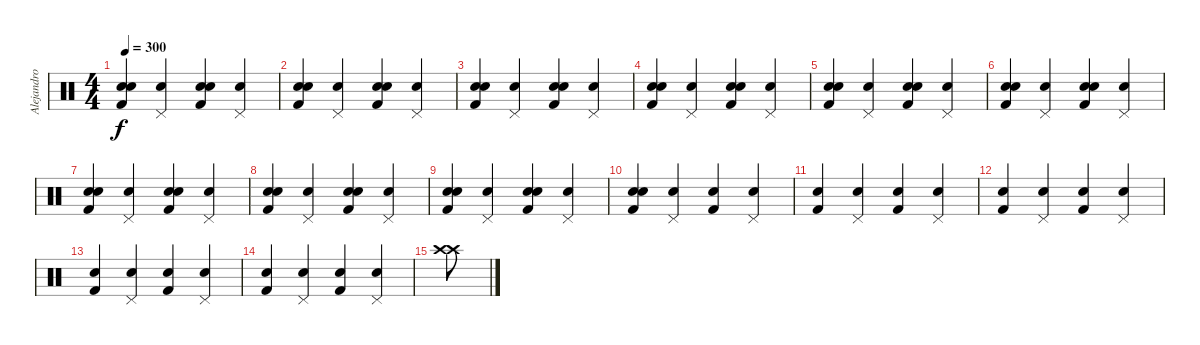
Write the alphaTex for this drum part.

\track ("Alejandro" "Alejandro") {instrument percussion}
\staff {score}
\articulation defaults
\ts (4 4)
\tempo 300
\clef neutral
\ks c
("Snare (hit) 2" "Electric Snare (hit)" "Kick (hit) 2").4{dy f} ("Pedal Hi-Hat (hit)" "Snare (hit) 2").4 ("Snare (hit) 2" "Electric Snare (hit)" "Kick (hit) 2").4 ("Pedal Hi-Hat (hit)" "Snare (hit) 2").4 |
("Snare (hit) 2" "Electric Snare (hit)" "Kick (hit) 2").4 ("Pedal Hi-Hat (hit)" "Snare (hit) 2").4 ("Snare (hit) 2" "Electric Snare (hit)" "Kick (hit) 2").4 ("Pedal Hi-Hat (hit)" "Snare (hit) 2").4 |
("Snare (hit) 2" "Electric Snare (hit)" "Kick (hit) 2").4 ("Pedal Hi-Hat (hit)" "Snare (hit) 2").4 ("Snare (hit) 2" "Electric Snare (hit)" "Kick (hit) 2").4 ("Pedal Hi-Hat (hit)" "Snare (hit) 2").4 |
("Snare (hit) 2" "Electric Snare (hit)" "Kick (hit) 2").4 ("Pedal Hi-Hat (hit)" "Snare (hit) 2").4 ("Snare (hit) 2" "Electric Snare (hit)" "Kick (hit) 2").4 ("Pedal Hi-Hat (hit)" "Snare (hit) 2").4 |
("Snare (hit) 2" "Electric Snare (hit)" "Kick (hit) 2").4 ("Pedal Hi-Hat (hit)" "Snare (hit) 2").4 ("Snare (hit) 2" "Electric Snare (hit)" "Kick (hit) 2").4 ("Pedal Hi-Hat (hit)" "Snare (hit) 2").4 |
("Snare (hit) 2" "Electric Snare (hit)" "Kick (hit) 2").4 ("Pedal Hi-Hat (hit)" "Snare (hit) 2").4 ("Snare (hit) 2" "Electric Snare (hit)" "Kick (hit) 2").4 ("Pedal Hi-Hat (hit)" "Snare (hit) 2").4 |
("Snare (hit) 2" "Electric Snare (hit)" "Kick (hit) 2").4 ("Pedal Hi-Hat (hit)" "Snare (hit) 2").4 ("Snare (hit) 2" "Electric Snare (hit)" "Kick (hit) 2").4 ("Pedal Hi-Hat (hit)" "Snare (hit) 2").4 |
("Snare (hit) 2" "Electric Snare (hit)" "Kick (hit) 2").4 ("Pedal Hi-Hat (hit)" "Snare (hit) 2").4 ("Snare (hit) 2" "Electric Snare (hit)" "Kick (hit) 2").4 ("Pedal Hi-Hat (hit)" "Snare (hit) 2").4 |
("Snare (hit) 2" "Electric Snare (hit)" "Kick (hit) 2").4 ("Pedal Hi-Hat (hit)" "Snare (hit) 2").4 ("Snare (hit) 2" "Electric Snare (hit)" "Kick (hit) 2").4 ("Pedal Hi-Hat (hit)" "Snare (hit) 2").4 |
("Snare (hit) 2" "Electric Snare (hit)" "Kick (hit) 2").4 ("Pedal Hi-Hat (hit)" "Snare (hit) 2").4 ("Electric Snare (hit)" "Kick (hit) 2").4 ("Pedal Hi-Hat (hit)" "Snare (hit) 2").4 |
("Electric Snare (hit)" "Kick (hit) 2").4 ("Pedal Hi-Hat (hit)" "Snare (hit) 2").4 ("Electric Snare (hit)" "Kick (hit) 2").4 ("Pedal Hi-Hat (hit)" "Snare (hit) 2").4 |
("Electric Snare (hit)" "Kick (hit) 2").4 ("Pedal Hi-Hat (hit)" "Snare (hit) 2").4 ("Electric Snare (hit)" "Kick (hit) 2").4 ("Pedal Hi-Hat (hit)" "Snare (hit)").4 |
("Electric Snare (hit)" "Kick (hit) 2").4 ("Pedal Hi-Hat (hit)" "Snare (hit) 2").4 ("Electric Snare (hit)" "Kick (hit) 2").4 ("Pedal Hi-Hat (hit)" "Snare (hit)").4 |
("Electric Snare (hit)" "Kick (hit) 2").4 ("Pedal Hi-Hat (hit)" "Snare (hit) 2").4 ("Electric Snare (hit)" "Kick (hit) 2").4 ("Pedal Hi-Hat (hit)" "Snare (hit)").4 |
("Crash high (hit)" "Crash high (hit)").8
